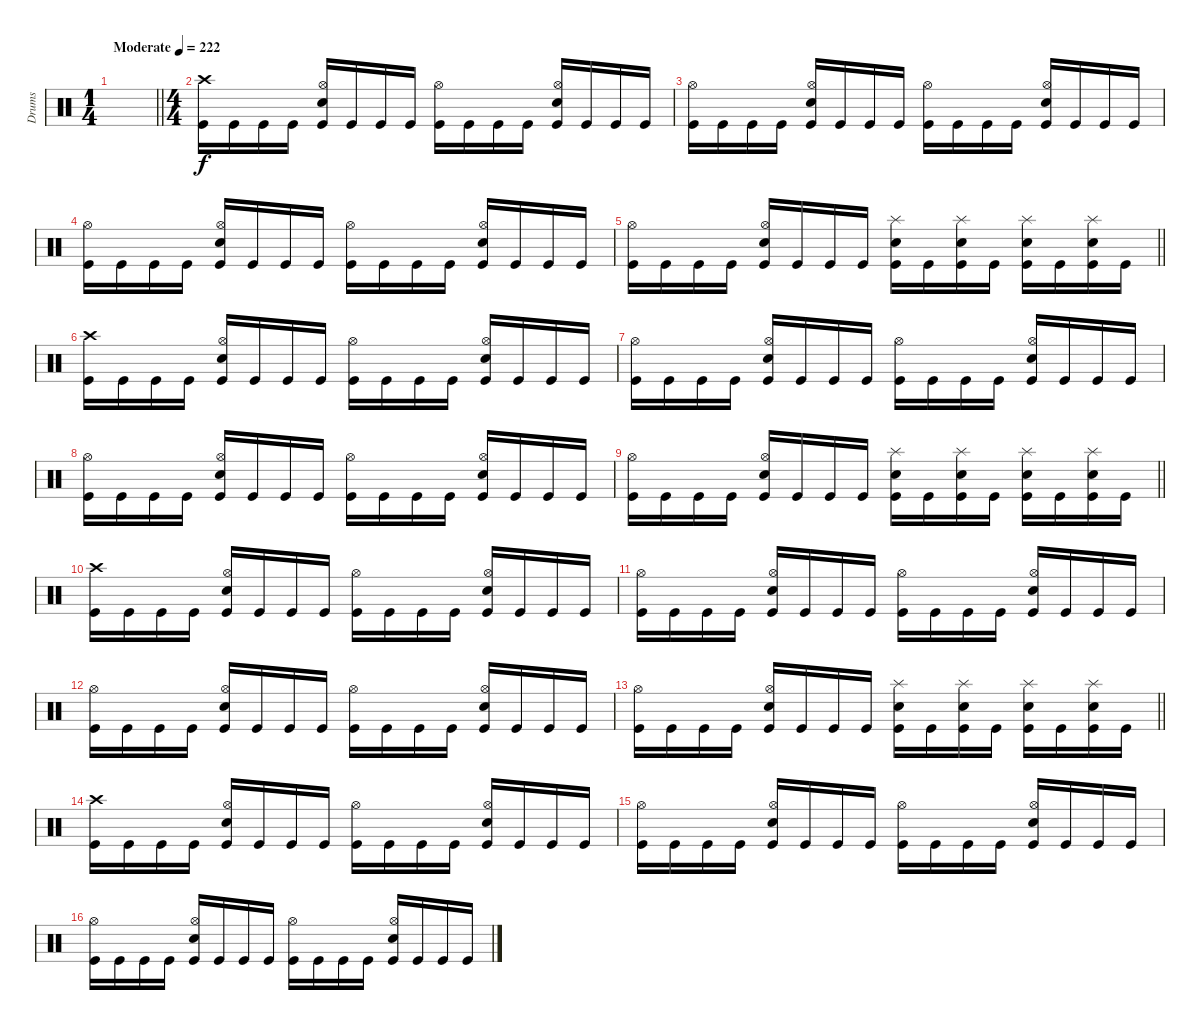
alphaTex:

\track ("Drums" "Drums") {instrument percussion}
\staff
\articulation defaults
\ts (1 4)
\tempo (222 "Moderate")
\clef neutral
\barLineRight lightlight
\ks c
|
\ts (4 4)
("Crash high (hit)" "Kick (hit)").16 "Kick (hit)".16 "Kick (hit)".16 "Kick (hit)".16 ("Hi-Hat (open)" "Electric Snare (hit)" "Kick (hit)").16 "Kick (hit)".16 "Kick (hit)".16 "Kick (hit)".16 ("Hi-Hat (open)" "Kick (hit)").16 "Kick (hit)".16 "Kick (hit)".16 "Kick (hit)".16 ("Hi-Hat (open)" "Electric Snare (hit)" "Kick (hit)").16 "Kick (hit)".16 "Kick (hit)".16 "Kick (hit)".16 |
("Hi-Hat (open)" "Kick (hit)").16 "Kick (hit)".16 "Kick (hit)".16 "Kick (hit)".16 ("Hi-Hat (open)" "Electric Snare (hit)" "Kick (hit)").16 "Kick (hit)".16 "Kick (hit)".16 "Kick (hit)".16 ("Hi-Hat (open)" "Kick (hit)").16 "Kick (hit)".16 "Kick (hit)".16 "Kick (hit)".16 ("Hi-Hat (open)" "Electric Snare (hit)" "Kick (hit)").16 "Kick (hit)".16 "Kick (hit)".16 "Kick (hit)".16 |
("Hi-Hat (open)" "Kick (hit)").16 "Kick (hit)".16 "Kick (hit)".16 "Kick (hit)".16 ("Hi-Hat (open)" "Electric Snare (hit)" "Kick (hit)").16 "Kick (hit)".16 "Kick (hit)".16 "Kick (hit)".16 ("Hi-Hat (open)" "Kick (hit)").16 "Kick (hit)".16 "Kick (hit)".16 "Kick (hit)".16 ("Hi-Hat (open)" "Electric Snare (hit)" "Kick (hit)").16 "Kick (hit)".16 "Kick (hit)".16 "Kick (hit)".16 |
\barLineRight lightlight
("Hi-Hat (open)" "Kick (hit)").16 "Kick (hit)".16 "Kick (hit)".16 "Kick (hit)".16 ("Hi-Hat (open)" "Electric Snare (hit)" "Kick (hit)").16 "Kick (hit)".16 "Kick (hit)".16 "Kick (hit)".16 ("Splash (hit)" "Electric Snare (hit)" "Kick (hit)").16 "Kick (hit)".16 ("Splash (hit)" "Electric Snare (hit)" "Kick (hit)").16 "Kick (hit)".16 ("Splash (hit)" "Electric Snare (hit)" "Kick (hit)").16 "Kick (hit)".16 ("Splash (hit)" "Electric Snare (hit)" "Kick (hit)").16 "Kick (hit)".16 |
("Crash high (hit)" "Kick (hit)").16 "Kick (hit)".16 "Kick (hit)".16 "Kick (hit)".16 ("Hi-Hat (open)" "Electric Snare (hit)" "Kick (hit)").16 "Kick (hit)".16 "Kick (hit)".16 "Kick (hit)".16 ("Hi-Hat (open)" "Kick (hit)").16 "Kick (hit)".16 "Kick (hit)".16 "Kick (hit)".16 ("Hi-Hat (open)" "Electric Snare (hit)" "Kick (hit)").16 "Kick (hit)".16 "Kick (hit)".16 "Kick (hit)".16 |
("Hi-Hat (open)" "Kick (hit)").16 "Kick (hit)".16 "Kick (hit)".16 "Kick (hit)".16 ("Hi-Hat (open)" "Electric Snare (hit)" "Kick (hit)").16 "Kick (hit)".16 "Kick (hit)".16 "Kick (hit)".16 ("Hi-Hat (open)" "Kick (hit)").16 "Kick (hit)".16 "Kick (hit)".16 "Kick (hit)".16 ("Hi-Hat (open)" "Electric Snare (hit)" "Kick (hit)").16 "Kick (hit)".16 "Kick (hit)".16 "Kick (hit)".16 |
("Hi-Hat (open)" "Kick (hit)").16 "Kick (hit)".16 "Kick (hit)".16 "Kick (hit)".16 ("Hi-Hat (open)" "Electric Snare (hit)" "Kick (hit)").16 "Kick (hit)".16 "Kick (hit)".16 "Kick (hit)".16 ("Hi-Hat (open)" "Kick (hit)").16 "Kick (hit)".16 "Kick (hit)".16 "Kick (hit)".16 ("Hi-Hat (open)" "Electric Snare (hit)" "Kick (hit)").16 "Kick (hit)".16 "Kick (hit)".16 "Kick (hit)".16 |
\barLineRight lightlight
("Hi-Hat (open)" "Kick (hit)").16 "Kick (hit)".16 "Kick (hit)".16 "Kick (hit)".16 ("Hi-Hat (open)" "Electric Snare (hit)" "Kick (hit)").16 "Kick (hit)".16 "Kick (hit)".16 "Kick (hit)".16 ("Splash (hit)" "Electric Snare (hit)" "Kick (hit)").16 "Kick (hit)".16 ("Splash (hit)" "Electric Snare (hit)" "Kick (hit)").16 "Kick (hit)".16 ("Splash (hit)" "Electric Snare (hit)" "Kick (hit)").16 "Kick (hit)".16 ("Splash (hit)" "Electric Snare (hit)" "Kick (hit)").16 "Kick (hit)".16 |
("Crash high (hit)" "Kick (hit)").16 "Kick (hit)".16 "Kick (hit)".16 "Kick (hit)".16 ("Hi-Hat (open)" "Electric Snare (hit)" "Kick (hit)").16 "Kick (hit)".16 "Kick (hit)".16 "Kick (hit)".16 ("Hi-Hat (open)" "Kick (hit)").16 "Kick (hit)".16 "Kick (hit)".16 "Kick (hit)".16 ("Hi-Hat (open)" "Electric Snare (hit)" "Kick (hit)").16 "Kick (hit)".16 "Kick (hit)".16 "Kick (hit)".16 |
("Hi-Hat (open)" "Kick (hit)").16 "Kick (hit)".16 "Kick (hit)".16 "Kick (hit)".16 ("Hi-Hat (open)" "Electric Snare (hit)" "Kick (hit)").16 "Kick (hit)".16 "Kick (hit)".16 "Kick (hit)".16 ("Hi-Hat (open)" "Kick (hit)").16 "Kick (hit)".16 "Kick (hit)".16 "Kick (hit)".16 ("Hi-Hat (open)" "Electric Snare (hit)" "Kick (hit)").16 "Kick (hit)".16 "Kick (hit)".16 "Kick (hit)".16 |
("Hi-Hat (open)" "Kick (hit)").16 "Kick (hit)".16 "Kick (hit)".16 "Kick (hit)".16 ("Hi-Hat (open)" "Electric Snare (hit)" "Kick (hit)").16 "Kick (hit)".16 "Kick (hit)".16 "Kick (hit)".16 ("Hi-Hat (open)" "Kick (hit)").16 "Kick (hit)".16 "Kick (hit)".16 "Kick (hit)".16 ("Hi-Hat (open)" "Electric Snare (hit)" "Kick (hit)").16 "Kick (hit)".16 "Kick (hit)".16 "Kick (hit)".16 |
\barLineRight lightlight
("Hi-Hat (open)" "Kick (hit)").16 "Kick (hit)".16 "Kick (hit)".16 "Kick (hit)".16 ("Hi-Hat (open)" "Electric Snare (hit)" "Kick (hit)").16 "Kick (hit)".16 "Kick (hit)".16 "Kick (hit)".16 ("Splash (hit)" "Electric Snare (hit)" "Kick (hit)").16 "Kick (hit)".16 ("Splash (hit)" "Electric Snare (hit)" "Kick (hit)").16 "Kick (hit)".16 ("Splash (hit)" "Electric Snare (hit)" "Kick (hit)").16 "Kick (hit)".16 ("Splash (hit)" "Electric Snare (hit)" "Kick (hit)").16 "Kick (hit)".16 |
("Crash high (hit)" "Kick (hit)").16 "Kick (hit)".16 "Kick (hit)".16 "Kick (hit)".16 ("Hi-Hat (open)" "Electric Snare (hit)" "Kick (hit)").16 "Kick (hit)".16 "Kick (hit)".16 "Kick (hit)".16 ("Hi-Hat (open)" "Kick (hit)").16 "Kick (hit)".16 "Kick (hit)".16 "Kick (hit)".16 ("Hi-Hat (open)" "Electric Snare (hit)" "Kick (hit)").16 "Kick (hit)".16 "Kick (hit)".16 "Kick (hit)".16 |
("Hi-Hat (open)" "Kick (hit)").16 "Kick (hit)".16 "Kick (hit)".16 "Kick (hit)".16 ("Hi-Hat (open)" "Electric Snare (hit)" "Kick (hit)").16 "Kick (hit)".16 "Kick (hit)".16 "Kick (hit)".16 ("Hi-Hat (open)" "Kick (hit)").16 "Kick (hit)".16 "Kick (hit)".16 "Kick (hit)".16 ("Hi-Hat (open)" "Electric Snare (hit)" "Kick (hit)").16 "Kick (hit)".16 "Kick (hit)".16 "Kick (hit)".16 |
("Hi-Hat (open)" "Kick (hit)").16 "Kick (hit)".16 "Kick (hit)".16 "Kick (hit)".16 ("Hi-Hat (open)" "Electric Snare (hit)" "Kick (hit)").16 "Kick (hit)".16 "Kick (hit)".16 "Kick (hit)".16 ("Hi-Hat (open)" "Kick (hit)").16 "Kick (hit)".16 "Kick (hit)".16 "Kick (hit)".16 ("Hi-Hat (open)" "Electric Snare (hit)" "Kick (hit)").16 "Kick (hit)".16 "Kick (hit)".16 "Kick (hit)".16
